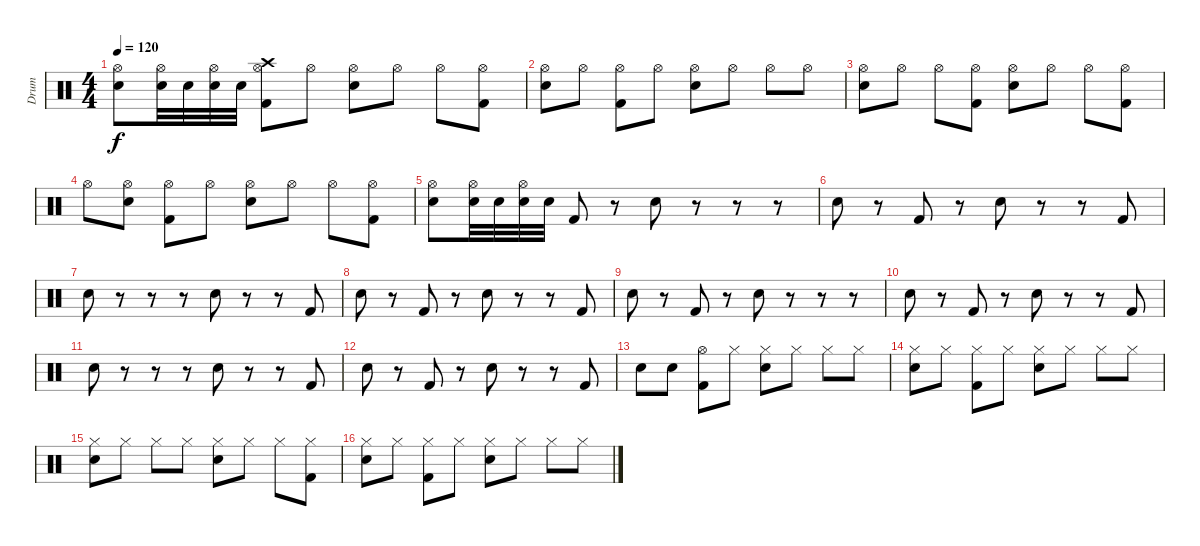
\track ("Drum" "Drum") {instrument percussion}
\staff {score}
\articulation defaults
\ts (4 4)
\tempo 120
\clef neutral
\ks c
("Hi-Hat (open)" "Electric Snare (hit)").8{dy f} ("Hi-Hat (open)" "Electric Snare (hit)").32 "Electric Snare (hit)".32 ("Hi-Hat (open)" "Electric Snare (hit)").32 "Electric Snare (hit)".32 ("Kick (hit) 2" "Crash high (hit)" "Hi-Hat (open)").8 "Hi-Hat (open)".8 ("Electric Snare (hit)" "Hi-Hat (open)").8 "Hi-Hat (open)".8 "Hi-Hat (open)".8 ("Hi-Hat (open)" "Kick (hit) 2").8 |
("Electric Snare (hit)" "Hi-Hat (open)").8 "Hi-Hat (open)".8 ("Kick (hit) 2" "Hi-Hat (open)").8 "Hi-Hat (open)".8 ("Electric Snare (hit)" "Hi-Hat (open)").8 "Hi-Hat (open)".8 "Hi-Hat (open)".8 "Hi-Hat (open)".8 |
("Electric Snare (hit)" "Hi-Hat (open)").8 "Hi-Hat (open)".8 "Hi-Hat (open)".8 ("Hi-Hat (open)" "Kick (hit) 2").8 ("Electric Snare (hit)" "Hi-Hat (open)").8 "Hi-Hat (open)".8 "Hi-Hat (open)".8 ("Kick (hit) 2" "Hi-Hat (open)").8 |
"Hi-Hat (open)".8 ("Hi-Hat (open)" "Electric Snare (hit)").8 ("Hi-Hat (open)" "Kick (hit) 2").8 "Hi-Hat (open)".8 ("Hi-Hat (open)" "Electric Snare (hit)").8 "Hi-Hat (open)".8 "Hi-Hat (open)".8 ("Hi-Hat (open)" "Kick (hit) 2").8 |
("Hi-Hat (open)" "Electric Snare (hit)").8 ("Hi-Hat (open)" "Electric Snare (hit)").32 "Electric Snare (hit)".32 ("Hi-Hat (open)" "Electric Snare (hit)").32 "Electric Snare (hit)".32 "Kick (hit) 2".8 r.8 "Electric Snare (hit)".8 r.8 r.8 r.8 |
"Electric Snare (hit)".8 r.8 "Kick (hit) 2".8 r.8 "Electric Snare (hit)".8 r.8 r.8 "Kick (hit) 2".8 |
"Electric Snare (hit)".8 r.8 r.8 r.8 "Electric Snare (hit)".8 r.8 r.8 "Kick (hit) 2".8 |
"Electric Snare (hit)".8 r.8 "Kick (hit) 2".8 r.8 "Electric Snare (hit)".8 r.8 r.8 "Kick (hit) 2".8 |
"Electric Snare (hit)".8 r.8 "Kick (hit) 2".8 r.8 "Electric Snare (hit)".8 r.8 r.8 r.8 |
"Electric Snare (hit)".8 r.8 "Kick (hit) 2".8 r.8 "Electric Snare (hit)".8 r.8 r.8 "Kick (hit) 2".8 |
"Electric Snare (hit)".8 r.8 r.8 r.8 "Electric Snare (hit)".8 r.8 r.8 "Kick (hit) 2".8 |
"Electric Snare (hit)".8 r.8 "Kick (hit) 2".8 r.8 "Electric Snare (hit)".8 r.8 r.8 "Kick (hit) 2".8 |
"Electric Snare (hit)".8 "Electric Snare (hit)".8 ("Kick (hit) 2" "Hi-Hat (open)").8 "Hi-Hat (closed)".8 ("Electric Snare (hit)" "Hi-Hat (closed)").8 "Hi-Hat (closed)".8 "Hi-Hat (closed)".8 "Hi-Hat (closed)".8 |
("Electric Snare (hit)" "Hi-Hat (closed)").8 "Hi-Hat (closed)".8 ("Kick (hit) 2" "Hi-Hat (closed)").8 "Hi-Hat (closed)".8 ("Electric Snare (hit)" "Hi-Hat (closed)").8 "Hi-Hat (closed)".8 "Hi-Hat (closed)".8 "Hi-Hat (closed)".8 |
("Electric Snare (hit)" "Hi-Hat (closed)").8 "Hi-Hat (closed)".8 "Hi-Hat (closed)".8 "Hi-Hat (closed)".8 ("Electric Snare (hit)" "Hi-Hat (closed)").8 "Hi-Hat (closed)".8 "Hi-Hat (closed)".8 ("Kick (hit) 2" "Hi-Hat (closed)").8 |
("Electric Snare (hit)" "Hi-Hat (closed)").8 "Hi-Hat (closed)".8 ("Kick (hit) 2" "Hi-Hat (closed)").8 "Hi-Hat (closed)".8 ("Electric Snare (hit)" "Hi-Hat (closed)").8 "Hi-Hat (closed)".8 "Hi-Hat (closed)".8 "Hi-Hat (closed)".8
